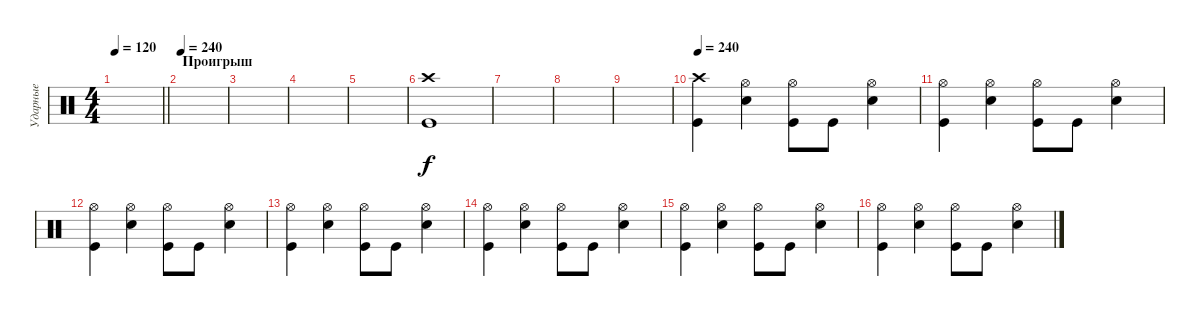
\track ("Ударные" "Ударные") {instrument percussion}
\staff {score}
\articulation defaults
\ts (4 4)
\tempo 120
\clef neutral
\barLineRight lightlight
\ks c
|
\section ("" "Проигрыш")
\tempo 240
|
|
|
|
("Crash high (hit)" "Kick (hit)").1 |
|
|
|
\tempo 240
("Crash high (hit)" "Kick (hit)").4 ("Hi-Hat (open)" "Electric Snare (hit)").4 ("Hi-Hat (open)" "Kick (hit)").8 "Kick (hit)".8 ("Hi-Hat (open)" "Electric Snare (hit)").4 |
("Hi-Hat (open)" "Kick (hit)").4 ("Hi-Hat (open)" "Electric Snare (hit)").4 ("Hi-Hat (open)" "Kick (hit)").8 "Kick (hit)".8 ("Hi-Hat (open)" "Electric Snare (hit)").4 |
("Hi-Hat (open)" "Kick (hit)").4 ("Hi-Hat (open)" "Electric Snare (hit)").4 ("Hi-Hat (open)" "Kick (hit)").8 "Kick (hit)".8 ("Hi-Hat (open)" "Electric Snare (hit)").4 |
("Hi-Hat (open)" "Kick (hit)").4 ("Hi-Hat (open)" "Electric Snare (hit)").4 ("Hi-Hat (open)" "Kick (hit)").8 "Kick (hit)".8 ("Hi-Hat (open)" "Electric Snare (hit)").4 |
("Hi-Hat (open)" "Kick (hit)").4 ("Hi-Hat (open)" "Electric Snare (hit)").4 ("Hi-Hat (open)" "Kick (hit)").8 "Kick (hit)".8 ("Hi-Hat (open)" "Electric Snare (hit)").4 |
("Hi-Hat (open)" "Kick (hit)").4 ("Hi-Hat (open)" "Electric Snare (hit)").4 ("Hi-Hat (open)" "Kick (hit)").8 "Kick (hit)".8 ("Hi-Hat (open)" "Electric Snare (hit)").4 |
("Hi-Hat (open)" "Kick (hit)").4 ("Hi-Hat (open)" "Electric Snare (hit)").4 ("Hi-Hat (open)" "Kick (hit)").8 "Kick (hit)".8 ("Hi-Hat (open)" "Electric Snare (hit)").4
